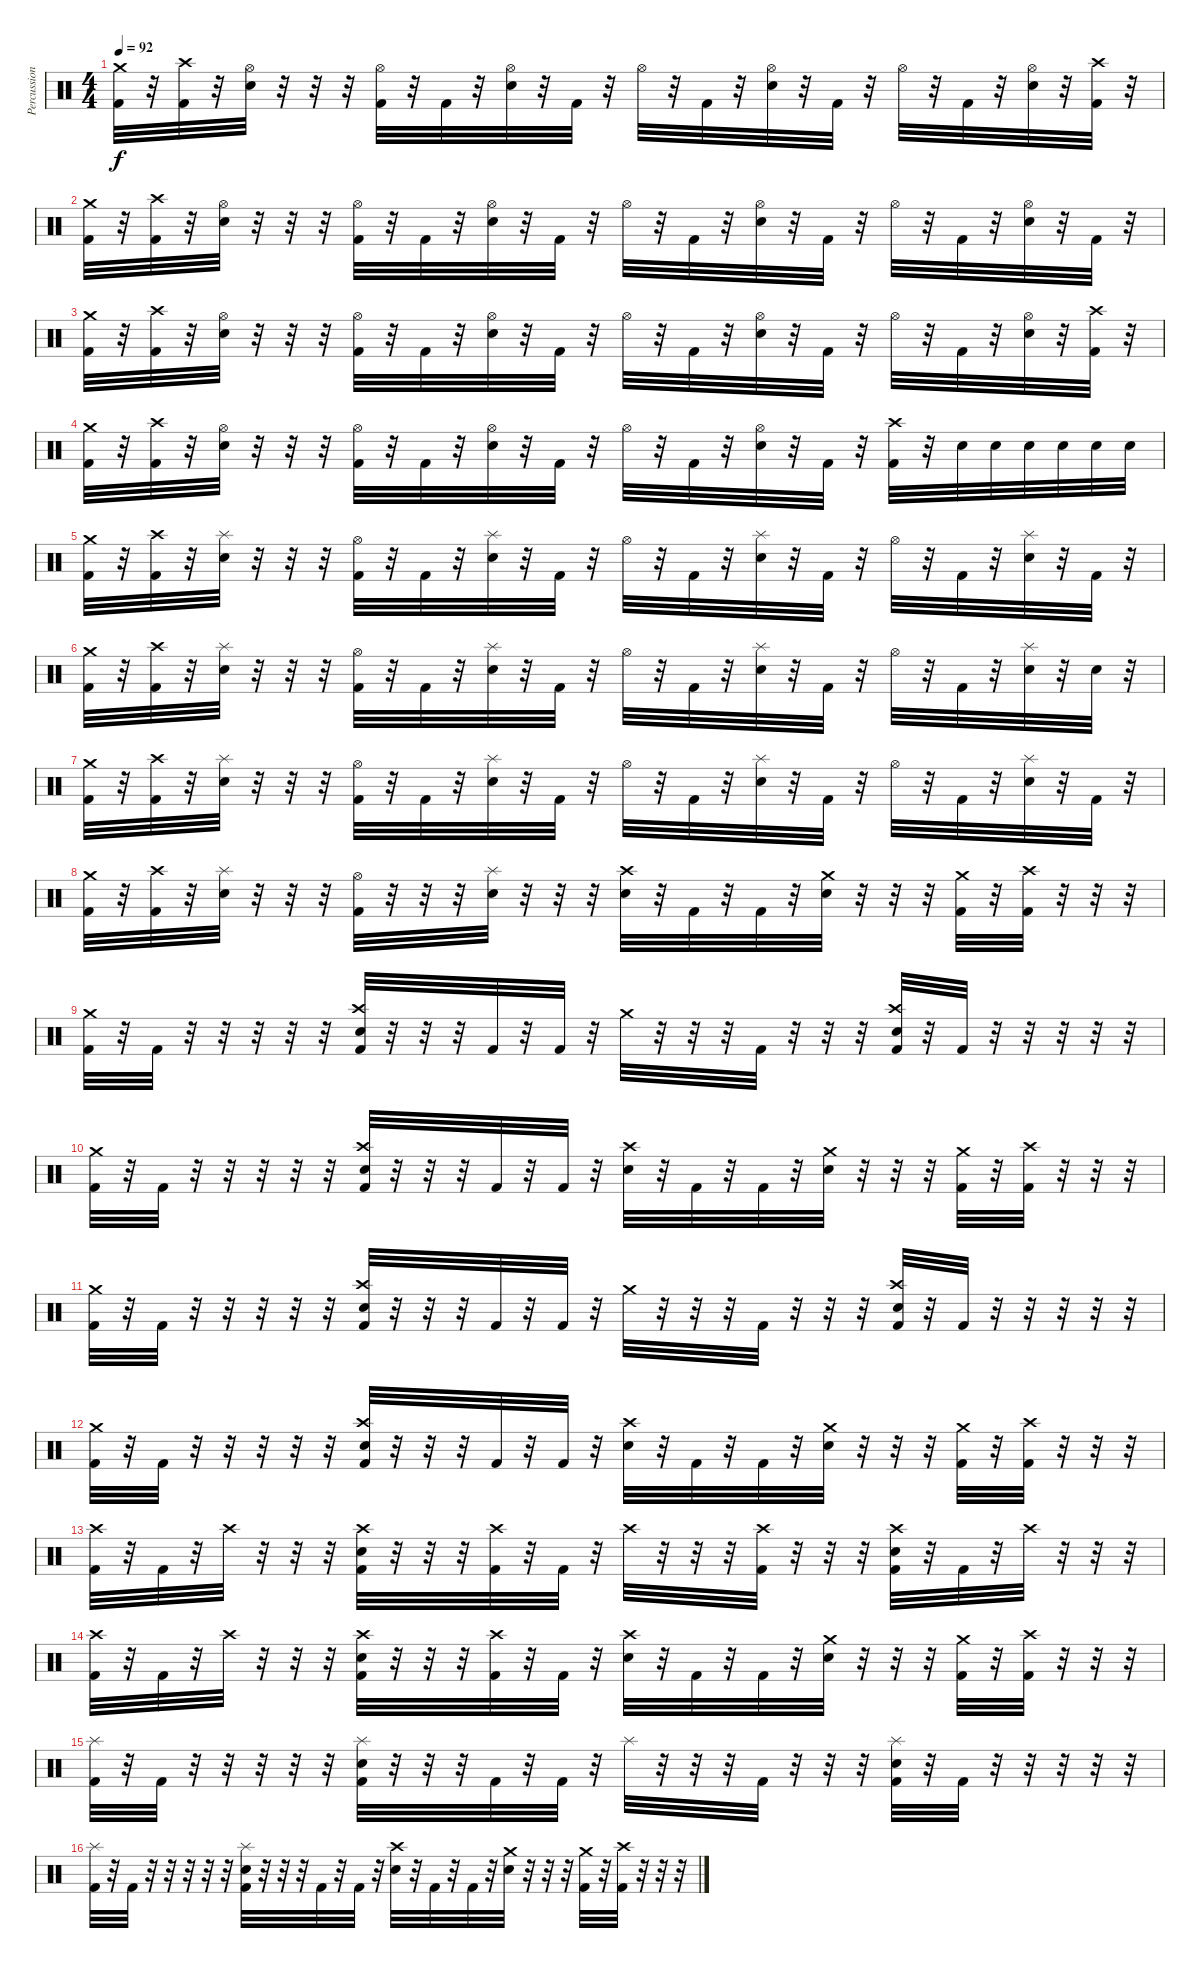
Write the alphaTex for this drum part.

\track ("Percussion" "Percussion") {instrument percussion}
\staff {score}
\articulation defaults
\ts (4 4)
\tempo 92
\clef neutral
\ks c
("Crash medium (hit)" "Kick (hit) 2").32{dy f} r.32 ("Crash high (hit)" "Kick (hit) 2").32 r.32 ("Hi-Hat (open)" "Electric Snare (hit)").32 r.32 r.32 r.32 ("Hi-Hat (open)" "Kick (hit) 2").32 r.32 "Kick (hit) 2".32 r.32 ("Hi-Hat (open)" "Electric Snare (hit)").32 r.32 "Kick (hit) 2".32 r.32 "Hi-Hat (open)".32 r.32 "Kick (hit) 2".32 r.32 ("Hi-Hat (open)" "Electric Snare (hit)").32 r.32 "Kick (hit) 2".32 r.32 "Hi-Hat (open)".32 r.32 "Kick (hit) 2".32 r.32 ("Hi-Hat (open)" "Electric Snare (hit)").32 r.32 ("Crash high (hit)" "Kick (hit) 2").32 r.32 |
("Crash medium (hit)" "Kick (hit) 2").32 r.32 ("Crash high (hit)" "Kick (hit) 2").32 r.32 ("Hi-Hat (open)" "Electric Snare (hit)").32 r.32 r.32 r.32 ("Hi-Hat (open)" "Kick (hit) 2").32 r.32 "Kick (hit) 2".32 r.32 ("Hi-Hat (open)" "Electric Snare (hit)").32 r.32 "Kick (hit) 2".32 r.32 "Hi-Hat (open)".32 r.32 "Kick (hit) 2".32 r.32 ("Hi-Hat (open)" "Electric Snare (hit)").32 r.32 "Kick (hit) 2".32 r.32 "Hi-Hat (open)".32 r.32 "Kick (hit) 2".32 r.32 ("Hi-Hat (open)" "Electric Snare (hit)").32 r.32 "Kick (hit) 2".32 r.32 |
("Crash medium (hit)" "Kick (hit) 2").32 r.32 ("Crash high (hit)" "Kick (hit) 2").32 r.32 ("Hi-Hat (open)" "Electric Snare (hit)").32 r.32 r.32 r.32 ("Hi-Hat (open)" "Kick (hit) 2").32 r.32 "Kick (hit) 2".32 r.32 ("Hi-Hat (open)" "Electric Snare (hit)").32 r.32 "Kick (hit) 2".32 r.32 "Hi-Hat (open)".32 r.32 "Kick (hit) 2".32 r.32 ("Hi-Hat (open)" "Electric Snare (hit)").32 r.32 "Kick (hit) 2".32 r.32 "Hi-Hat (open)".32 r.32 "Kick (hit) 2".32 r.32 ("Hi-Hat (open)" "Electric Snare (hit)").32 r.32 ("Crash high (hit)" "Kick (hit) 2").32 r.32 |
("Crash medium (hit)" "Kick (hit) 2").32 r.32 ("Crash high (hit)" "Kick (hit) 2").32 r.32 ("Hi-Hat (open)" "Electric Snare (hit)").32 r.32 r.32 r.32 ("Hi-Hat (open)" "Kick (hit) 2").32 r.32 "Kick (hit) 2".32 r.32 ("Hi-Hat (open)" "Electric Snare (hit)").32 r.32 "Kick (hit) 2".32 r.32 "Hi-Hat (open)".32 r.32 "Kick (hit) 2".32 r.32 ("Hi-Hat (open)" "Electric Snare (hit)").32 r.32 "Kick (hit) 2".32 r.32 ("Crash high (hit)" "Kick (hit) 2").32 r.32 "Electric Snare (hit)".32 "Electric Snare (hit)".32 "Electric Snare (hit)".32 "Electric Snare (hit)".32 "Electric Snare (hit)".32 "Electric Snare (hit)".32 |
("Crash medium (hit)" "Kick (hit) 2").32 r.32 ("Crash high (hit)" "Kick (hit) 2").32 r.32 ("Splash (hit)" "Electric Snare (hit)").32 r.32 r.32 r.32 ("Hi-Hat (open)" "Kick (hit) 2").32 r.32 "Kick (hit) 2".32 r.32 ("Splash (hit)" "Electric Snare (hit)").32 r.32 "Kick (hit) 2".32 r.32 "Hi-Hat (open)".32 r.32 "Kick (hit) 2".32 r.32 ("Splash (hit)" "Electric Snare (hit)").32 r.32 "Kick (hit) 2".32 r.32 "Hi-Hat (open)".32 r.32 "Kick (hit) 2".32 r.32 ("Splash (hit)" "Electric Snare (hit)").32 r.32 "Kick (hit) 2".32 r.32 |
("Crash medium (hit)" "Kick (hit) 2").32 r.32 ("Crash high (hit)" "Kick (hit) 2").32 r.32 ("Splash (hit)" "Electric Snare (hit)").32 r.32 r.32 r.32 ("Hi-Hat (open)" "Kick (hit) 2").32 r.32 "Kick (hit) 2".32 r.32 ("Splash (hit)" "Electric Snare (hit)").32 r.32 "Kick (hit) 2".32 r.32 "Hi-Hat (open)".32 r.32 "Kick (hit) 2".32 r.32 ("Splash (hit)" "Electric Snare (hit)").32 r.32 "Kick (hit) 2".32 r.32 "Hi-Hat (open)".32 r.32 "Kick (hit) 2".32 r.32 ("Splash (hit)" "Electric Snare (hit)").32 r.32 "Electric Snare (hit)".32 r.32 |
("Crash medium (hit)" "Kick (hit) 2").32 r.32 ("Crash high (hit)" "Kick (hit) 2").32 r.32 ("Splash (hit)" "Electric Snare (hit)").32 r.32 r.32 r.32 ("Hi-Hat (open)" "Kick (hit) 2").32 r.32 "Kick (hit) 2".32 r.32 ("Splash (hit)" "Electric Snare (hit)").32 r.32 "Kick (hit) 2".32 r.32 "Hi-Hat (open)".32 r.32 "Kick (hit) 2".32 r.32 ("Splash (hit)" "Electric Snare (hit)").32 r.32 "Kick (hit) 2".32 r.32 "Hi-Hat (open)".32 r.32 "Kick (hit) 2".32 r.32 ("Splash (hit)" "Electric Snare (hit)").32 r.32 "Kick (hit) 2".32 r.32 |
("Crash medium (hit)" "Kick (hit) 2").32 r.32 ("Crash high (hit)" "Kick (hit) 2").32 r.32 ("Splash (hit)" "Electric Snare (hit)").32 r.32 r.32 r.32 ("Hi-Hat (open)" "Kick (hit) 2").32 r.32 r.32 r.32 ("Splash (hit)" "Electric Snare (hit)").32 r.32 r.32 r.32 ("Crash high (hit)" "Electric Snare (hit)").32 r.32 "Kick (hit) 2".32 r.32 "Kick (hit) 2".32 r.32 ("Crash medium (hit)" "Electric Snare (hit)").32 r.32 r.32 r.32 ("Crash medium (hit)" "Kick (hit) 2").32 r.32 ("Crash high (hit)" "Kick (hit) 2").32 r.32 r.32 r.32 |
("Crash medium (hit)" "Kick (hit) 2").32 r.32 "Kick (hit) 2".32 r.32 r.32 r.32 r.32 r.32 ("Crash high (hit)" "Electric Snare (hit)" "Kick (hit) 2").32 r.32 r.32 r.32 "Kick (hit) 2".32 r.32 "Kick (hit) 2".32 r.32 "Crash medium (hit)".32 r.32 r.32 r.32 "Kick (hit) 2".32 r.32 r.32 r.32 ("Crash high (hit)" "Electric Snare (hit)" "Kick (hit) 2").32 r.32 "Kick (hit) 2".32 r.32 r.32 r.32 r.32 r.32 |
("Crash medium (hit)" "Kick (hit) 2").32 r.32 "Kick (hit) 2".32 r.32 r.32 r.32 r.32 r.32 ("Crash high (hit)" "Electric Snare (hit)" "Kick (hit) 2").32 r.32 r.32 r.32 "Kick (hit) 2".32 r.32 "Kick (hit) 2".32 r.32 ("Crash high (hit)" "Electric Snare (hit)").32 r.32 "Kick (hit) 2".32 r.32 "Kick (hit) 2".32 r.32 ("Crash medium (hit)" "Electric Snare (hit)").32 r.32 r.32 r.32 ("Crash medium (hit)" "Kick (hit) 2").32 r.32 ("Crash high (hit)" "Kick (hit) 2").32 r.32 r.32 r.32 |
("Crash medium (hit)" "Kick (hit) 2").32 r.32 "Kick (hit) 2".32 r.32 r.32 r.32 r.32 r.32 ("Crash high (hit)" "Electric Snare (hit)" "Kick (hit) 2").32 r.32 r.32 r.32 "Kick (hit) 2".32 r.32 "Kick (hit) 2".32 r.32 "Crash medium (hit)".32 r.32 r.32 r.32 "Kick (hit) 2".32 r.32 r.32 r.32 ("Crash high (hit)" "Electric Snare (hit)" "Kick (hit) 2").32 r.32 "Kick (hit) 2".32 r.32 r.32 r.32 r.32 r.32 |
("Crash medium (hit)" "Kick (hit) 2").32 r.32 "Kick (hit) 2".32 r.32 r.32 r.32 r.32 r.32 ("Crash high (hit)" "Electric Snare (hit)" "Kick (hit) 2").32 r.32 r.32 r.32 "Kick (hit) 2".32 r.32 "Kick (hit) 2".32 r.32 ("Crash high (hit)" "Electric Snare (hit)").32 r.32 "Kick (hit) 2".32 r.32 "Kick (hit) 2".32 r.32 ("Crash medium (hit)" "Electric Snare (hit)").32 r.32 r.32 r.32 ("Crash medium (hit)" "Kick (hit) 2").32 r.32 ("Crash high (hit)" "Kick (hit) 2").32 r.32 r.32 r.32 |
("Crash high (hit)" "Kick (hit) 2").32 r.32 "Kick (hit) 2".32 r.32 "Crash high (hit)".32 r.32 r.32 r.32 ("Crash high (hit)" "Electric Snare (hit)" "Kick (hit) 2").32 r.32 r.32 r.32 ("Crash high (hit)" "Kick (hit) 2").32 r.32 "Kick (hit) 2".32 r.32 "Crash high (hit)".32 r.32 r.32 r.32 ("Crash high (hit)" "Kick (hit) 2").32 r.32 r.32 r.32 ("Crash high (hit)" "Electric Snare (hit)" "Kick (hit) 2").32 r.32 "Kick (hit) 2".32 r.32 "Crash high (hit)".32 r.32 r.32 r.32 |
("Crash high (hit)" "Kick (hit) 2").32 r.32 "Kick (hit) 2".32 r.32 "Crash high (hit)".32 r.32 r.32 r.32 ("Crash high (hit)" "Electric Snare (hit)" "Kick (hit) 2").32 r.32 r.32 r.32 ("Crash high (hit)" "Kick (hit) 2").32 r.32 "Kick (hit) 2".32 r.32 ("Crash high (hit)" "Electric Snare (hit)").32 r.32 "Kick (hit) 2".32 r.32 "Kick (hit) 2".32 r.32 ("Crash medium (hit)" "Electric Snare (hit)").32 r.32 r.32 r.32 ("Crash medium (hit)" "Kick (hit) 2").32 r.32 ("Crash high (hit)" "Kick (hit) 2").32 r.32 r.32 r.32 |
("Splash (hit)" "Kick (hit) 2").32 r.32 "Kick (hit) 2".32 r.32 r.32 r.32 r.32 r.32 ("Splash (hit)" "Electric Snare (hit)" "Kick (hit) 2").32 r.32 r.32 r.32 "Kick (hit) 2".32 r.32 "Kick (hit) 2".32 r.32 "Splash (hit)".32 r.32 r.32 r.32 "Kick (hit) 2".32 r.32 r.32 r.32 ("Splash (hit)" "Electric Snare (hit)" "Kick (hit) 2").32 r.32 "Kick (hit) 2".32 r.32 r.32 r.32 r.32 r.32 |
("Splash (hit)" "Kick (hit) 2").32 r.32 "Kick (hit) 2".32 r.32 r.32 r.32 r.32 r.32 ("Splash (hit)" "Electric Snare (hit)" "Kick (hit) 2").32 r.32 r.32 r.32 "Kick (hit) 2".32 r.32 "Kick (hit) 2".32 r.32 ("Crash high (hit)" "Electric Snare (hit)").32 r.32 "Kick (hit) 2".32 r.32 "Kick (hit) 2".32 r.32 ("Crash medium (hit)" "Electric Snare (hit)").32 r.32 r.32 r.32 ("Crash medium (hit)" "Kick (hit) 2").32 r.32 ("Crash high (hit)" "Kick (hit) 2").32 r.32 r.32 r.32
